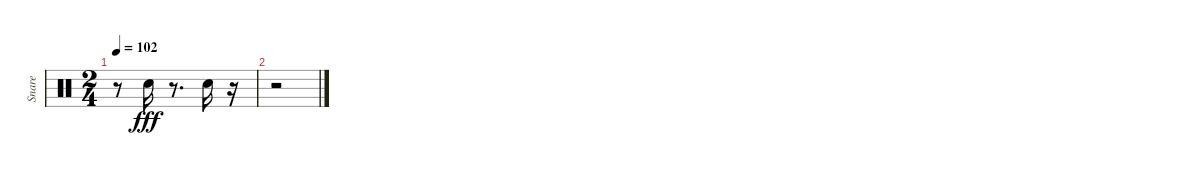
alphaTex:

\track ("Snare" "Snare") {instrument percussion}
\staff {score}
\articulation defaults
\ts (2 4)
\tempo 102
\clef neutral
\ks c
r.8{dy fff} "Electric Snare (hit)".16 r.8{d} "Electric Snare (hit)".16 r.16 |
r.2
